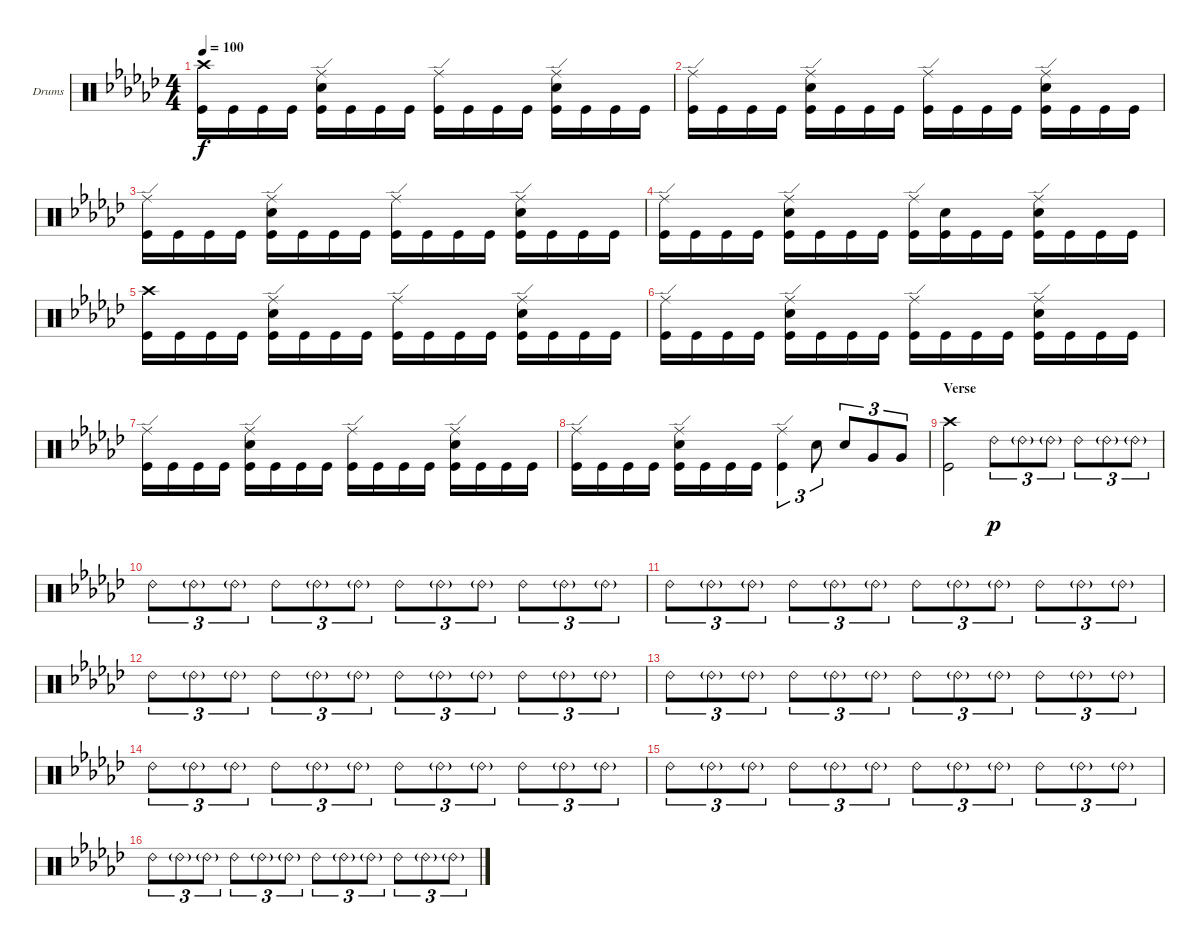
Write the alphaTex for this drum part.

\defaultSystemsLayout 4
\bracketExtendMode groupsimilarinstruments
\firstSystemTrackNameOrientation horizontal
\otherSystemsTrackNameOrientation horizontal
\track ("Drumkit" "Drums") {instrument percussion}
\staff {score}
\articulation defaults
\ts (4 4)
\tempo 100
\clef neutral
\scale
0.333333
\ks ebminor
("Kick (hit)" "Crash high (hit)").16{dy f} "Kick (hit)".16 "Kick (hit)".16 "Kick (hit)".16 ("Kick (hit)" "Snare (hit) 2" "Ride (edge)").16 "Kick (hit)".16 "Kick (hit)".16 "Kick (hit)".16 ("Kick (hit)" "Ride (edge)").16 "Kick (hit)".16 "Kick (hit)".16 "Kick (hit)".16 ("Kick (hit)" "Snare (hit) 2" "Ride (edge)").16 "Kick (hit)".16 "Kick (hit)".16 "Kick (hit)".16 |
\scale
0.333333 ("Kick (hit)" "Ride (edge)").16 "Kick (hit)".16 "Kick (hit)".16 "Kick (hit)".16 ("Kick (hit)" "Snare (hit) 2" "Ride (edge)").16 "Kick (hit)".16 "Kick (hit)".16 "Kick (hit)".16 ("Kick (hit)" "Ride (edge)").16 "Kick (hit)".16 "Kick (hit)".16 "Kick (hit)".16 ("Kick (hit)" "Snare (hit) 2" "Ride (edge)").16 "Kick (hit)".16 "Kick (hit)".16 "Kick (hit)".16 |
\scale
0.333333 ("Kick (hit)" "Ride (edge)").16 "Kick (hit)".16 "Kick (hit)".16 "Kick (hit)".16 ("Kick (hit)" "Snare (hit) 2" "Ride (edge)").16 "Kick (hit)".16 "Kick (hit)".16 "Kick (hit)".16 ("Kick (hit)" "Ride (edge)").16 "Kick (hit)".16 "Kick (hit)".16 "Kick (hit)".16 ("Kick (hit)" "Snare (hit) 2" "Ride (edge)").16 "Kick (hit)".16 "Kick (hit)".16 "Kick (hit)".16 |
\scale
0.333333 ("Kick (hit)" "Ride (edge)").16 "Kick (hit)".16 "Kick (hit)".16 "Kick (hit)".16 ("Kick (hit)" "Snare (hit) 2" "Ride (edge)").16 "Kick (hit)".16 "Kick (hit)".16 "Kick (hit)".16 ("Kick (hit)" "Ride (edge)").16 ("Kick (hit)" "Snare (hit) 2").16 "Kick (hit)".16 "Kick (hit)".16 ("Kick (hit)" "Snare (hit) 2" "Ride (edge)").16 "Kick (hit)".16 "Kick (hit)".16 "Kick (hit)".16 |
\scale
0.333333 ("Kick (hit)" "Crash high (hit)").16 "Kick (hit)".16 "Kick (hit)".16 "Kick (hit)".16 ("Kick (hit)" "Snare (hit) 2" "Ride (edge)").16 "Kick (hit)".16 "Kick (hit)".16 "Kick (hit)".16 ("Kick (hit)" "Ride (edge)").16 "Kick (hit)".16 "Kick (hit)".16 "Kick (hit)".16 ("Kick (hit)" "Snare (hit) 2" "Ride (edge)").16 "Kick (hit)".16 "Kick (hit)".16 "Kick (hit)".16 |
\scale
0.333333 ("Kick (hit)" "Ride (edge)").16 "Kick (hit)".16 "Kick (hit)".16 "Kick (hit)".16 ("Kick (hit)" "Snare (hit) 2" "Ride (edge)").16 "Kick (hit)".16 "Kick (hit)".16 "Kick (hit)".16 ("Kick (hit)" "Ride (edge)").16 "Kick (hit)".16 "Kick (hit)".16 "Kick (hit)".16 ("Kick (hit)" "Snare (hit) 2" "Ride (edge)").16 "Kick (hit)".16 "Kick (hit)".16 "Kick (hit)".16 |
("Kick (hit)" "Ride (edge)").16 "Kick (hit)".16 "Kick (hit)".16 "Kick (hit)".16 ("Kick (hit)" "Snare (hit) 2" "Ride (edge)").16 "Kick (hit)".16 "Kick (hit)".16 "Kick (hit)".16 ("Kick (hit)" "Ride (edge)").16 "Kick (hit)".16 "Kick (hit)".16 "Kick (hit)".16 ("Kick (hit)" "Snare (hit) 2" "Ride (edge)").16 "Kick (hit)".16 "Kick (hit)".16 "Kick (hit)".16 |
("Kick (hit)" "Ride (edge)").16 "Kick (hit)".16 "Kick (hit)".16 "Kick (hit)".16 ("Kick (hit)" "Snare (hit) 2" "Ride (edge)").16 "Kick (hit)".16 "Kick (hit)".16 "Kick (hit)".16 ("Kick (hit)" "Ride (edge)").4{tu (3 2)} "Snare (hit) 2".8{tu (3 2)} "Snare (hit) 2".8{tu (3 2)} "Very Low Tom (hit)".8{tu (3 2)} "Very Low Tom (hit)".8{tu (3 2)} |
\section ("" "Verse")
("Crash high (hit)" "Kick (hit)").2 "Ride (bell) 2".8{tu (3 2) dy p} "Ride (bell) 2"{g}.8{tu (3 2)} "Ride (bell) 2"{g}.8{tu (3 2)} "Ride (bell) 2".8{tu (3 2)} "Ride (bell) 2"{g}.8{tu (3 2)} "Ride (bell) 2"{g}.8{tu (3 2)} |
"Ride (bell) 2".8{tu (3 2)} "Ride (bell) 2"{g}.8{tu (3 2)} "Ride (bell) 2"{g}.8{tu (3 2)} "Ride (bell) 2".8{tu (3 2)} "Ride (bell) 2"{g}.8{tu (3 2)} "Ride (bell) 2"{g}.8{tu (3 2)} "Ride (bell) 2".8{tu (3 2)} "Ride (bell) 2"{g}.8{tu (3 2)} "Ride (bell) 2"{g}.8{tu (3 2)} "Ride (bell) 2".8{tu (3 2)} "Ride (bell) 2"{g}.8{tu (3 2)} "Ride (bell) 2"{g}.8{tu (3 2)} |
"Ride (bell) 2".8{tu (3 2)} "Ride (bell) 2"{g}.8{tu (3 2)} "Ride (bell) 2"{g}.8{tu (3 2)} "Ride (bell) 2".8{tu (3 2)} "Ride (bell) 2"{g}.8{tu (3 2)} "Ride (bell) 2"{g}.8{tu (3 2)} "Ride (bell) 2".8{tu (3 2)} "Ride (bell) 2"{g}.8{tu (3 2)} "Ride (bell) 2"{g}.8{tu (3 2)} "Ride (bell) 2".8{tu (3 2)} "Ride (bell) 2"{g}.8{tu (3 2)} "Ride (bell) 2"{g}.8{tu (3 2)} |
"Ride (bell) 2".8{tu (3 2)} "Ride (bell) 2"{g}.8{tu (3 2)} "Ride (bell) 2"{g}.8{tu (3 2)} "Ride (bell) 2".8{tu (3 2)} "Ride (bell) 2"{g}.8{tu (3 2)} "Ride (bell) 2"{g}.8{tu (3 2)} "Ride (bell) 2".8{tu (3 2)} "Ride (bell) 2"{g}.8{tu (3 2)} "Ride (bell) 2"{g}.8{tu (3 2)} "Ride (bell) 2".8{tu (3 2)} "Ride (bell) 2"{g}.8{tu (3 2)} "Ride (bell) 2"{g}.8{tu (3 2)} |
"Ride (bell) 2".8{tu (3 2)} "Ride (bell) 2"{g}.8{tu (3 2)} "Ride (bell) 2"{g}.8{tu (3 2)} "Ride (bell) 2".8{tu (3 2)} "Ride (bell) 2"{g}.8{tu (3 2)} "Ride (bell) 2"{g}.8{tu (3 2)} "Ride (bell) 2".8{tu (3 2)} "Ride (bell) 2"{g}.8{tu (3 2)} "Ride (bell) 2"{g}.8{tu (3 2)} "Ride (bell) 2".8{tu (3 2)} "Ride (bell) 2"{g}.8{tu (3 2)} "Ride (bell) 2"{g}.8{tu (3 2)} |
"Ride (bell) 2".8{tu (3 2)} "Ride (bell) 2"{g}.8{tu (3 2)} "Ride (bell) 2"{g}.8{tu (3 2)} "Ride (bell) 2".8{tu (3 2)} "Ride (bell) 2"{g}.8{tu (3 2)} "Ride (bell) 2"{g}.8{tu (3 2)} "Ride (bell) 2".8{tu (3 2)} "Ride (bell) 2"{g}.8{tu (3 2)} "Ride (bell) 2"{g}.8{tu (3 2)} "Ride (bell) 2".8{tu (3 2)} "Ride (bell) 2"{g}.8{tu (3 2)} "Ride (bell) 2"{g}.8{tu (3 2)} |
"Ride (bell) 2".8{tu (3 2)} "Ride (bell) 2"{g}.8{tu (3 2)} "Ride (bell) 2"{g}.8{tu (3 2)} "Ride (bell) 2".8{tu (3 2)} "Ride (bell) 2"{g}.8{tu (3 2)} "Ride (bell) 2"{g}.8{tu (3 2)} "Ride (bell) 2".8{tu (3 2)} "Ride (bell) 2"{g}.8{tu (3 2)} "Ride (bell) 2"{g}.8{tu (3 2)} "Ride (bell) 2".8{tu (3 2)} "Ride (bell) 2"{g}.8{tu (3 2)} "Ride (bell) 2"{g}.8{tu (3 2)} |
"Ride (bell) 2".8{tu (3 2)} "Ride (bell) 2"{g}.8{tu (3 2)} "Ride (bell) 2"{g}.8{tu (3 2)} "Ride (bell) 2".8{tu (3 2)} "Ride (bell) 2"{g}.8{tu (3 2)} "Ride (bell) 2"{g}.8{tu (3 2)} "Ride (bell) 2".8{tu (3 2)} "Ride (bell) 2"{g}.8{tu (3 2)} "Ride (bell) 2"{g}.8{tu (3 2)} "Ride (bell) 2".8{tu (3 2)} "Ride (bell) 2"{g}.8{tu (3 2)} "Ride (bell) 2"{g}.8{tu (3 2)}
